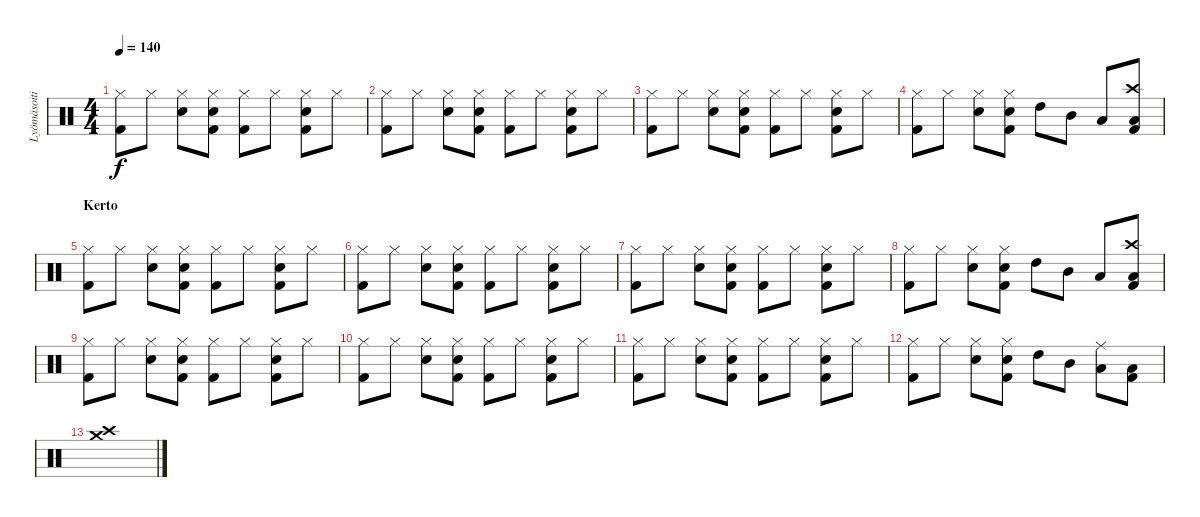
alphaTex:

\track ("Lyömäsoitin" "Lyömäsoiti") {instrument percussion}
\staff {score}
\articulation defaults
\ts (4 4)
\tempo 140
\clef neutral
\ks c
("Hi-Hat (closed)" "Kick (hit) 2").8{dy f} "Hi-Hat (closed)".8 ("Hi-Hat (closed)" "Snare (hit) 2").8 ("Hi-Hat (closed)" "Snare (hit) 2" "Kick (hit) 2").8 ("Hi-Hat (closed)" "Kick (hit) 2").8 "Hi-Hat (closed)".8 ("Hi-Hat (closed)" "Snare (hit) 2" "Kick (hit) 2").8 "Hi-Hat (closed)".8 |
("Hi-Hat (closed)" "Kick (hit) 2").8 "Hi-Hat (closed)".8 ("Hi-Hat (closed)" "Snare (hit) 2").8 ("Hi-Hat (closed)" "Snare (hit) 2" "Kick (hit) 2").8 ("Hi-Hat (closed)" "Kick (hit) 2").8 "Hi-Hat (closed)".8 ("Hi-Hat (closed)" "Snare (hit) 2" "Kick (hit) 2").8 "Hi-Hat (closed)".8 |
("Hi-Hat (closed)" "Kick (hit) 2").8 "Hi-Hat (closed)".8 ("Hi-Hat (closed)" "Snare (hit) 2").8 ("Hi-Hat (closed)" "Snare (hit) 2" "Kick (hit) 2").8 ("Hi-Hat (closed)" "Kick (hit) 2").8 "Hi-Hat (closed)".8 ("Hi-Hat (closed)" "Snare (hit) 2" "Kick (hit) 2").8 "Hi-Hat (closed)".8 |
("Hi-Hat (closed)" "Kick (hit) 2").8 "Hi-Hat (closed)".8 ("Hi-Hat (closed)" "Snare (hit) 2").8 ("Hi-Hat (closed)" "Snare (hit) 2" "Kick (hit) 2").8 "High Tom (hit)".8 "Mid Tom (hit)".8 "Low Tom (hit)".8 ("Crash high (hit)" "Low Floor Tom (hit)" "Kick (hit) 2").8 |
\section ("" "Kerto")
("Hi-Hat (closed)" "Kick (hit) 2").8 "Hi-Hat (closed)".8 ("Hi-Hat (closed)" "Snare (hit) 2").8 ("Hi-Hat (closed)" "Snare (hit) 2" "Kick (hit) 2").8 ("Hi-Hat (closed)" "Kick (hit) 2").8 "Hi-Hat (closed)".8 ("Hi-Hat (closed)" "Snare (hit) 2" "Kick (hit) 2").8 "Hi-Hat (closed)".8 |
("Hi-Hat (closed)" "Kick (hit) 2").8 "Hi-Hat (closed)".8 ("Hi-Hat (closed)" "Snare (hit) 2").8 ("Hi-Hat (closed)" "Snare (hit) 2" "Kick (hit) 2").8 ("Hi-Hat (closed)" "Kick (hit) 2").8 "Hi-Hat (closed)".8 ("Hi-Hat (closed)" "Snare (hit) 2" "Kick (hit) 2").8 "Hi-Hat (closed)".8 |
("Hi-Hat (closed)" "Kick (hit) 2").8 "Hi-Hat (closed)".8 ("Hi-Hat (closed)" "Snare (hit) 2").8 ("Hi-Hat (closed)" "Snare (hit) 2" "Kick (hit) 2").8 ("Hi-Hat (closed)" "Kick (hit) 2").8 "Hi-Hat (closed)".8 ("Hi-Hat (closed)" "Snare (hit) 2" "Kick (hit) 2").8 "Hi-Hat (closed)".8 |
("Hi-Hat (closed)" "Kick (hit) 2").8 "Hi-Hat (closed)".8 ("Hi-Hat (closed)" "Snare (hit) 2").8 ("Hi-Hat (closed)" "Snare (hit) 2" "Kick (hit) 2").8 "High Tom (hit)".8 "Mid Tom (hit)".8 "Low Tom (hit)".8 ("Crash high (hit)" "Low Floor Tom (hit)" "Kick (hit) 2").8 |
("Hi-Hat (closed)" "Kick (hit) 2").8 "Hi-Hat (closed)".8 ("Hi-Hat (closed)" "Snare (hit) 2").8 ("Hi-Hat (closed)" "Snare (hit) 2" "Kick (hit) 2").8 ("Hi-Hat (closed)" "Kick (hit) 2").8 "Hi-Hat (closed)".8 ("Hi-Hat (closed)" "Snare (hit) 2" "Kick (hit) 2").8 "Hi-Hat (closed)".8 |
("Hi-Hat (closed)" "Kick (hit) 2").8 "Hi-Hat (closed)".8 ("Hi-Hat (closed)" "Snare (hit) 2").8 ("Hi-Hat (closed)" "Snare (hit) 2" "Kick (hit) 2").8 ("Hi-Hat (closed)" "Kick (hit) 2").8 "Hi-Hat (closed)".8 ("Hi-Hat (closed)" "Snare (hit) 2" "Kick (hit) 2").8 "Hi-Hat (closed)".8 |
("Hi-Hat (closed)" "Kick (hit) 2").8 "Hi-Hat (closed)".8 ("Hi-Hat (closed)" "Snare (hit) 2").8 ("Hi-Hat (closed)" "Snare (hit) 2" "Kick (hit) 2").8 ("Hi-Hat (closed)" "Kick (hit) 2").8 "Hi-Hat (closed)".8 ("Hi-Hat (closed)" "Snare (hit) 2" "Kick (hit) 2").8 "Hi-Hat (closed)".8 |
("Hi-Hat (closed)" "Kick (hit) 2").8 "Hi-Hat (closed)".8 ("Hi-Hat (closed)" "Snare (hit) 2").8 ("Hi-Hat (closed)" "Snare (hit) 2" "Kick (hit) 2").8 "High Tom (hit)".8 "Mid Tom (hit)".8 ("Ride (middle)" "Low Tom (hit)").8 ("Low Floor Tom (hit)" "Kick (hit) 2").8 |
("Crash high (hit)" "Crash medium (hit)").1
